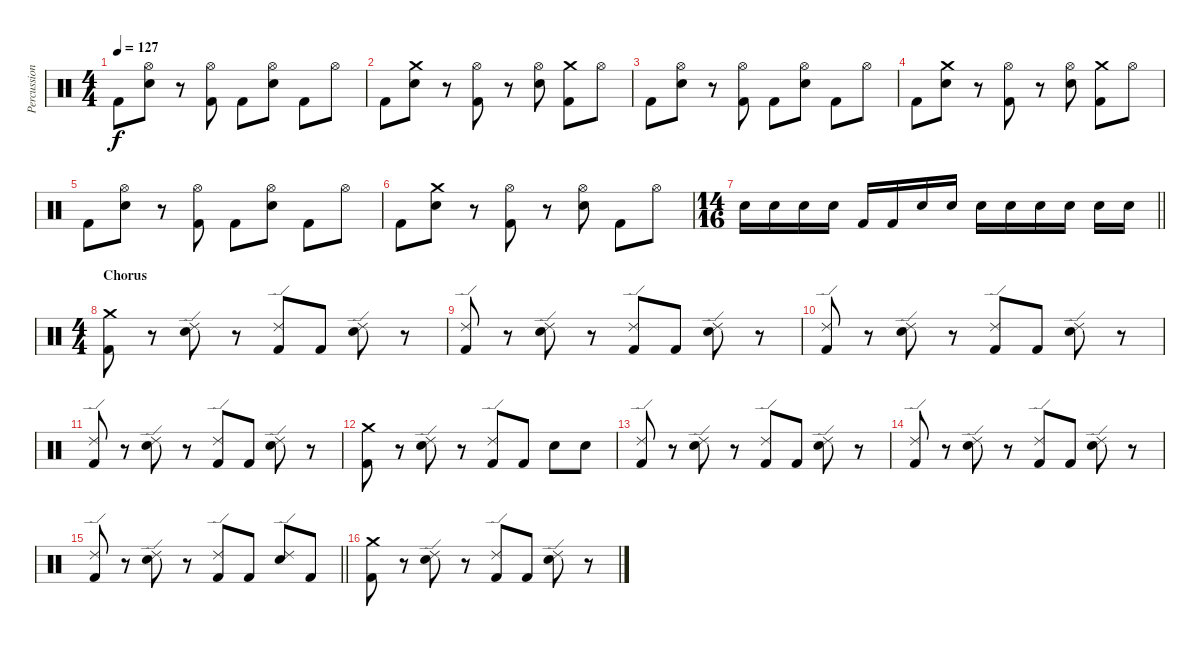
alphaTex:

\track ("Percussion" "Percussion") {instrument percussion}
\staff {score}
\articulation defaults
\ts (4 4)
\tempo 127
\clef neutral
\ks c "Kick (hit) 2".8{dy f}
("Hi-Hat (open)" "Electric Snare (hit)").8 r.8 ("Hi-Hat (open)" "Kick (hit) 2").8 "Kick (hit) 2".8 ("Hi-Hat (open)" "Electric Snare (hit)").8 "Kick (hit) 2".8 "Hi-Hat (open)".8 |
"Kick (hit) 2".8 ("Crash medium (hit)" "Electric Snare (hit)").8 r.8 ("Hi-Hat (open)" "Kick (hit) 2").8 r.8 ("Hi-Hat (open)" "Electric Snare (hit)").8 ("Crash medium (hit)" "Kick (hit) 2").8 "Hi-Hat (open)".8 |
"Kick (hit) 2".8 ("Hi-Hat (open)" "Electric Snare (hit)").8 r.8 ("Hi-Hat (open)" "Kick (hit) 2").8 "Kick (hit) 2".8 ("Hi-Hat (open)" "Electric Snare (hit)").8 "Kick (hit) 2".8 "Hi-Hat (open)".8 |
"Kick (hit) 2".8 ("Crash medium (hit)" "Electric Snare (hit)").8 r.8 ("Hi-Hat (open)" "Kick (hit) 2").8 r.8 ("Hi-Hat (open)" "Electric Snare (hit)").8 ("Crash medium (hit)" "Kick (hit) 2").8 "Hi-Hat (open)".8 |
"Kick (hit) 2".8 ("Hi-Hat (open)" "Electric Snare (hit)").8 r.8 ("Hi-Hat (open)" "Kick (hit) 2").8 "Kick (hit) 2".8 ("Hi-Hat (open)" "Electric Snare (hit)").8 "Kick (hit) 2".8 "Hi-Hat (open)".8 |
"Kick (hit) 2".8 ("Crash medium (hit)" "Electric Snare (hit)").8 r.8 ("Hi-Hat (open)" "Kick (hit) 2").8 r.8 ("Hi-Hat (open)" "Electric Snare (hit)").8 "Kick (hit) 2".8 "Hi-Hat (open)".8 |
\ts (14 16)
\barLineRight lightlight "Electric Snare (hit)".16 "Electric Snare (hit)".16 "Electric Snare (hit)".16 "Electric Snare (hit)".16 "Kick (hit) 2".16 "Kick (hit) 2".16 "Electric Snare (hit)".16 "Electric Snare (hit)".16 "Electric Snare (hit)".16 "Electric Snare (hit)".16 "Electric Snare (hit)".16 "Electric Snare (hit)".16 "Electric Snare (hit)".16 "Electric Snare (hit)".16
|
\ts (4 4)
\section ("" "Chorus")
("Crash medium (hit)" "Kick (hit) 2").8 r.8 ("Ride (edge) 2" "Electric Snare (hit)").8 r.8 ("Ride (edge) 2" "Kick (hit) 2").8 "Kick (hit) 2".8 ("Ride (edge) 2" "Electric Snare (hit)").8 r.8 |
("Ride (edge) 2" "Kick (hit) 2").8 r.8 ("Ride (edge) 2" "Electric Snare (hit)").8 r.8 ("Ride (edge) 2" "Kick (hit) 2").8 "Kick (hit) 2".8 ("Ride (edge) 2" "Electric Snare (hit)").8 r.8 |
("Ride (edge) 2" "Kick (hit) 2").8 r.8 ("Ride (edge) 2" "Electric Snare (hit)").8 r.8 ("Ride (edge) 2" "Kick (hit) 2").8 "Kick (hit) 2".8 ("Ride (edge) 2" "Electric Snare (hit)").8 r.8 |
("Ride (edge) 2" "Kick (hit) 2").8 r.8 ("Ride (edge) 2" "Electric Snare (hit)").8 r.8 ("Ride (edge) 2" "Kick (hit) 2").8 "Kick (hit) 2".8 ("Ride (edge) 2" "Electric Snare (hit)").8 r.8 |
("Crash medium (hit)" "Kick (hit) 2").8 r.8 ("Ride (edge) 2" "Electric Snare (hit)").8 r.8 ("Ride (edge) 2" "Kick (hit) 2").8 "Kick (hit) 2".8 "Electric Snare (hit)".8 "Electric Snare (hit)".8 |
("Ride (edge) 2" "Kick (hit) 2").8 r.8 ("Ride (edge) 2" "Electric Snare (hit)").8 r.8 ("Ride (edge) 2" "Kick (hit) 2").8 "Kick (hit) 2".8 ("Ride (edge) 2" "Electric Snare (hit)").8 r.8 |
("Ride (edge) 2" "Kick (hit) 2").8 r.8 ("Ride (edge) 2" "Electric Snare (hit)").8 r.8 ("Ride (edge) 2" "Kick (hit) 2").8 "Kick (hit) 2".8 ("Ride (edge) 2" "Electric Snare (hit)").8 r.8 |
\barLineRight lightlight
("Ride (edge) 2" "Kick (hit) 2").8 r.8 ("Ride (edge) 2" "Electric Snare (hit)").8 r.8 ("Ride (edge) 2" "Kick (hit) 2").8 "Kick (hit) 2".8 ("Ride (edge) 2" "Electric Snare (hit)").8 "Kick (hit) 2".8 |
("Crash medium (hit)" "Kick (hit) 2").8 r.8 ("Ride (edge) 2" "Electric Snare (hit)").8 r.8 ("Ride (edge) 2" "Kick (hit) 2").8 "Kick (hit) 2".8 ("Ride (edge) 2" "Electric Snare (hit)").8 r.8
